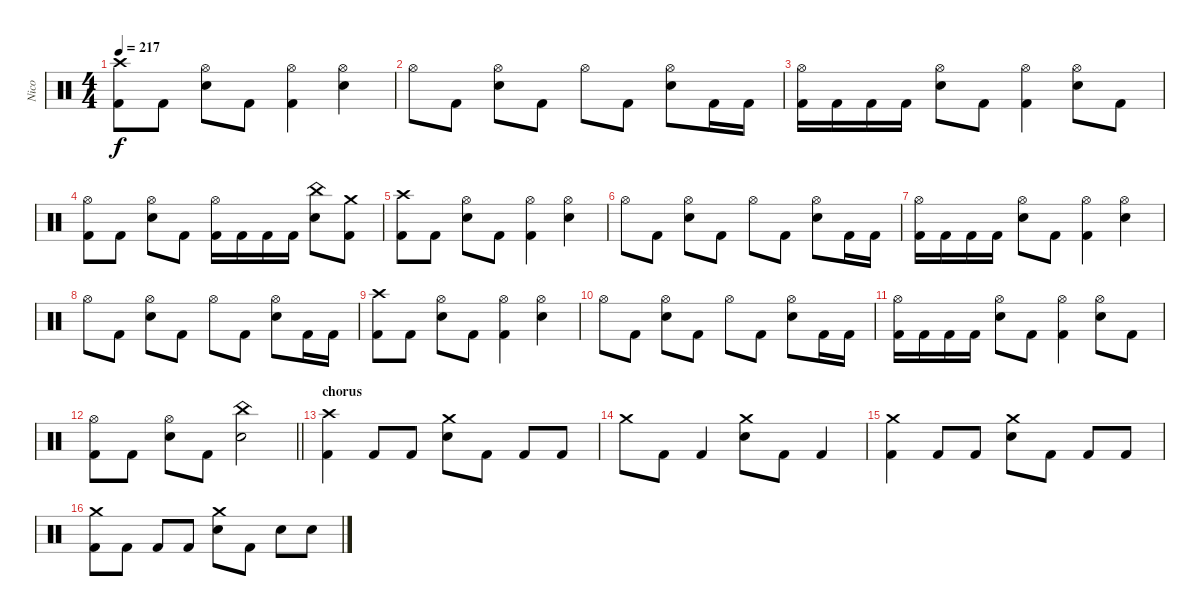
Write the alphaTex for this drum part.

\track ("Nico" "Nico") {instrument percussion}
\staff {score}
\articulation defaults
\ts (4 4)
\tempo 217
\clef neutral
\ks c
("Crash high (hit)" "Kick (hit) 2").8{dy f} "Kick (hit) 2".8 ("Hi-Hat (open)" "Electric Snare (hit)").8 "Kick (hit) 2".8 ("Hi-Hat (open)" "Kick (hit) 2").4 ("Hi-Hat (open)" "Electric Snare (hit)").4 |
"Hi-Hat (open)".8 "Kick (hit) 2".8 ("Hi-Hat (open)" "Electric Snare (hit)").8 "Kick (hit) 2".8 "Hi-Hat (open)".8 "Kick (hit) 2".8 ("Hi-Hat (open)" "Electric Snare (hit)").8 "Kick (hit) 2".16 "Kick (hit) 2".16 |
("Hi-Hat (open)" "Kick (hit) 2").16 "Kick (hit) 2".16 "Kick (hit) 2".16 "Kick (hit) 2".16 ("Hi-Hat (open)" "Electric Snare (hit)").8 "Kick (hit) 2".8 ("Hi-Hat (open)" "Kick (hit) 2").4 ("Hi-Hat (open)" "Electric Snare (hit)").8 "Kick (hit) 2".8 |
("Hi-Hat (open)" "Kick (hit) 2").8 "Kick (hit) 2".8 ("Hi-Hat (open)" "Electric Snare (hit)").8 "Kick (hit) 2".8 ("Hi-Hat (open)" "Kick (hit) 2").16 "Kick (hit) 2".16 "Kick (hit) 2".16 "Kick (hit) 2".16 ("China (hit)" "Electric Snare (hit)").8 ("Crash medium (hit)" "Kick (hit) 2").8 |
("Crash high (hit)" "Kick (hit) 2").8{balance 8} "Kick (hit) 2".8 ("Hi-Hat (open)" "Electric Snare (hit)").8 "Kick (hit) 2".8 ("Hi-Hat (open)" "Kick (hit) 2").4 ("Hi-Hat (open)" "Electric Snare (hit)").4 |
"Hi-Hat (open)".8 "Kick (hit) 2".8 ("Hi-Hat (open)" "Electric Snare (hit)").8 "Kick (hit) 2".8 "Hi-Hat (open)".8 "Kick (hit) 2".8 ("Hi-Hat (open)" "Electric Snare (hit)").8 "Kick (hit) 2".16 "Kick (hit) 2".16 |
("Hi-Hat (open)" "Kick (hit) 2").16 "Kick (hit) 2".16 "Kick (hit) 2".16 "Kick (hit) 2".16 ("Hi-Hat (open)" "Electric Snare (hit)").8 "Kick (hit) 2".8 ("Hi-Hat (open)" "Kick (hit) 2").4 ("Hi-Hat (open)" "Electric Snare (hit)").4 |
"Hi-Hat (open)".8 "Kick (hit) 2".8 ("Hi-Hat (open)" "Electric Snare (hit)").8 "Kick (hit) 2".8 "Hi-Hat (open)".8 "Kick (hit) 2".8 ("Hi-Hat (open)" "Electric Snare (hit)").8 "Kick (hit) 2".16 "Kick (hit) 2".16 |
("Crash high (hit)" "Kick (hit) 2").8 "Kick (hit) 2".8 ("Hi-Hat (open)" "Electric Snare (hit)").8 "Kick (hit) 2".8 ("Hi-Hat (open)" "Kick (hit) 2").4 ("Hi-Hat (open)" "Electric Snare (hit)").4 |
"Hi-Hat (open)".8 "Kick (hit) 2".8 ("Hi-Hat (open)" "Electric Snare (hit)").8 "Kick (hit) 2".8 "Hi-Hat (open)".8 "Kick (hit) 2".8 ("Hi-Hat (open)" "Electric Snare (hit)").8 "Kick (hit) 2".16 "Kick (hit) 2".16 |
("Hi-Hat (open)" "Kick (hit) 2").16 "Kick (hit) 2".16 "Kick (hit) 2".16 "Kick (hit) 2".16 ("Hi-Hat (open)" "Electric Snare (hit)").8 "Kick (hit) 2".8 ("Hi-Hat (open)" "Kick (hit) 2").4 ("Hi-Hat (open)" "Electric Snare (hit)").8 "Kick (hit) 2".8 |
\barLineRight lightlight
("Hi-Hat (open)" "Kick (hit) 2").8 "Kick (hit) 2".8 ("Hi-Hat (open)" "Electric Snare (hit)").8 "Kick (hit) 2".8 ("China (hit)" "Electric Snare (hit)").2 |
\section ("" "chorus")
("Crash high (hit)" "Kick (hit) 2").4 "Kick (hit) 2".8 "Kick (hit) 2".8 ("Crash medium (hit)" "Electric Snare (hit)").8 "Kick (hit) 2".8 "Kick (hit) 2".8 "Kick (hit) 2".8 |
"Crash medium (hit)".8 "Kick (hit) 2".8 "Kick (hit) 2".4 ("Crash medium (hit)" "Electric Snare (hit)").8 "Kick (hit) 2".8 "Kick (hit) 2".4 |
("Crash medium (hit)" "Kick (hit) 2").4 "Kick (hit) 2".8 "Kick (hit) 2".8 ("Crash medium (hit)" "Electric Snare (hit)").8 "Kick (hit) 2".8 "Kick (hit) 2".8 "Kick (hit) 2".8 |
("Crash medium (hit)" "Kick (hit) 2").8 "Kick (hit) 2".8 "Kick (hit) 2".8 "Kick (hit) 2".8 ("Crash medium (hit)" "Electric Snare (hit)").8 "Kick (hit) 2".8 "Electric Snare (hit)".8 "Electric Snare (hit)".8
